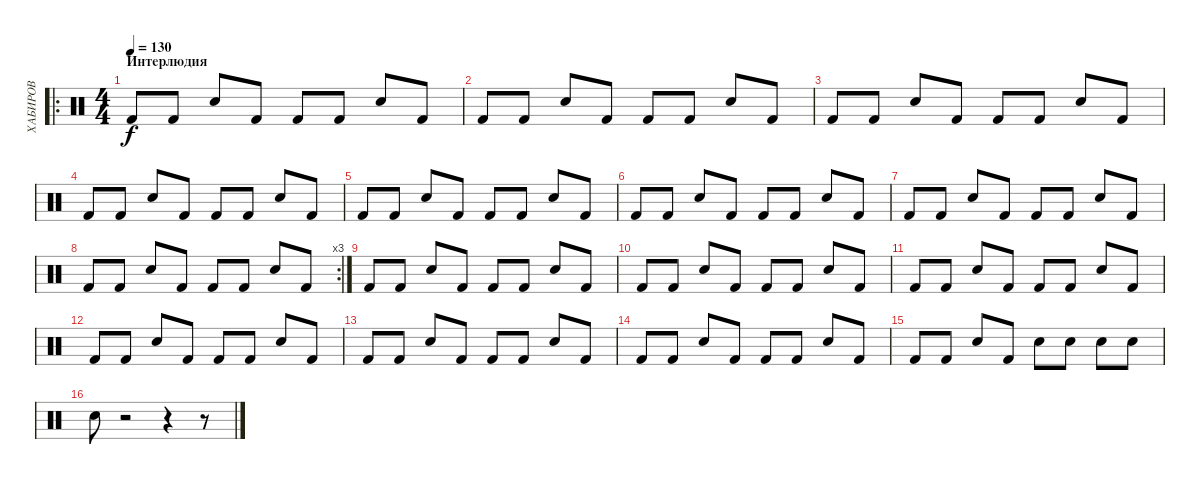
\track ("ХАБИРОВ" "ХАБИРОВ") {instrument percussion}
\staff {score}
\articulation defaults
\ro
\ts (4 4)
\section ("" "Интерлюдия")
\tempo 130
\clef neutral
\ks c "Kick (hit) 2".8{dy f} "Kick (hit) 2".8 "Snare (hit) 2".8 "Kick (hit) 2".8 "Kick (hit) 2".8 "Kick (hit) 2".8 "Snare (hit) 2".8 "Kick (hit) 2".8
|
"Kick (hit) 2".8 "Kick (hit) 2".8 "Snare (hit) 2".8 "Kick (hit) 2".8 "Kick (hit) 2".8 "Kick (hit) 2".8 "Snare (hit) 2".8 "Kick (hit) 2".8 |
"Kick (hit) 2".8 "Kick (hit) 2".8 "Snare (hit) 2".8 "Kick (hit) 2".8 "Kick (hit) 2".8 "Kick (hit) 2".8 "Snare (hit) 2".8 "Kick (hit) 2".8 |
"Kick (hit) 2".8 "Kick (hit) 2".8 "Snare (hit) 2".8 "Kick (hit) 2".8 "Kick (hit) 2".8 "Kick (hit) 2".8 "Snare (hit) 2".8 "Kick (hit) 2".8 |
"Kick (hit) 2".8 "Kick (hit) 2".8 "Snare (hit) 2".8 "Kick (hit) 2".8 "Kick (hit) 2".8 "Kick (hit) 2".8 "Snare (hit) 2".8 "Kick (hit) 2".8 |
"Kick (hit) 2".8 "Kick (hit) 2".8 "Snare (hit) 2".8 "Kick (hit) 2".8 "Kick (hit) 2".8 "Kick (hit) 2".8 "Snare (hit) 2".8 "Kick (hit) 2".8 |
"Kick (hit) 2".8 "Kick (hit) 2".8 "Snare (hit) 2".8 "Kick (hit) 2".8 "Kick (hit) 2".8 "Kick (hit) 2".8 "Snare (hit) 2".8 "Kick (hit) 2".8 |
\rc 3 "Kick (hit) 2".8 "Kick (hit) 2".8 "Snare (hit) 2".8 "Kick (hit) 2".8 "Kick (hit) 2".8 "Kick (hit) 2".8 "Snare (hit) 2".8 "Kick (hit) 2".8
|
"Kick (hit) 2".8 "Kick (hit) 2".8 "Snare (hit) 2".8 "Kick (hit) 2".8 "Kick (hit) 2".8 "Kick (hit) 2".8 "Snare (hit) 2".8 "Kick (hit) 2".8 |
"Kick (hit) 2".8 "Kick (hit) 2".8 "Snare (hit) 2".8 "Kick (hit) 2".8 "Kick (hit) 2".8 "Kick (hit) 2".8 "Snare (hit) 2".8 "Kick (hit) 2".8 |
"Kick (hit) 2".8 "Kick (hit) 2".8 "Snare (hit) 2".8 "Kick (hit) 2".8 "Kick (hit) 2".8 "Kick (hit) 2".8 "Snare (hit) 2".8 "Kick (hit) 2".8 |
"Kick (hit) 2".8 "Kick (hit) 2".8 "Snare (hit) 2".8 "Kick (hit) 2".8 "Kick (hit) 2".8 "Kick (hit) 2".8 "Snare (hit) 2".8 "Kick (hit) 2".8 |
"Kick (hit) 2".8 "Kick (hit) 2".8 "Snare (hit) 2".8 "Kick (hit) 2".8 "Kick (hit) 2".8 "Kick (hit) 2".8 "Snare (hit) 2".8 "Kick (hit) 2".8 |
"Kick (hit) 2".8 "Kick (hit) 2".8 "Snare (hit) 2".8 "Kick (hit) 2".8 "Kick (hit) 2".8 "Kick (hit) 2".8 "Snare (hit) 2".8 "Kick (hit) 2".8 |
"Kick (hit) 2".8 "Kick (hit) 2".8 "Snare (hit) 2".8 "Kick (hit) 2".8 "Snare (hit) 2".8 "Snare (hit) 2".8 "Snare (hit) 2".8 "Snare (hit) 2".8 |
"Snare (hit) 2".8 r.2 r.4 r.8
